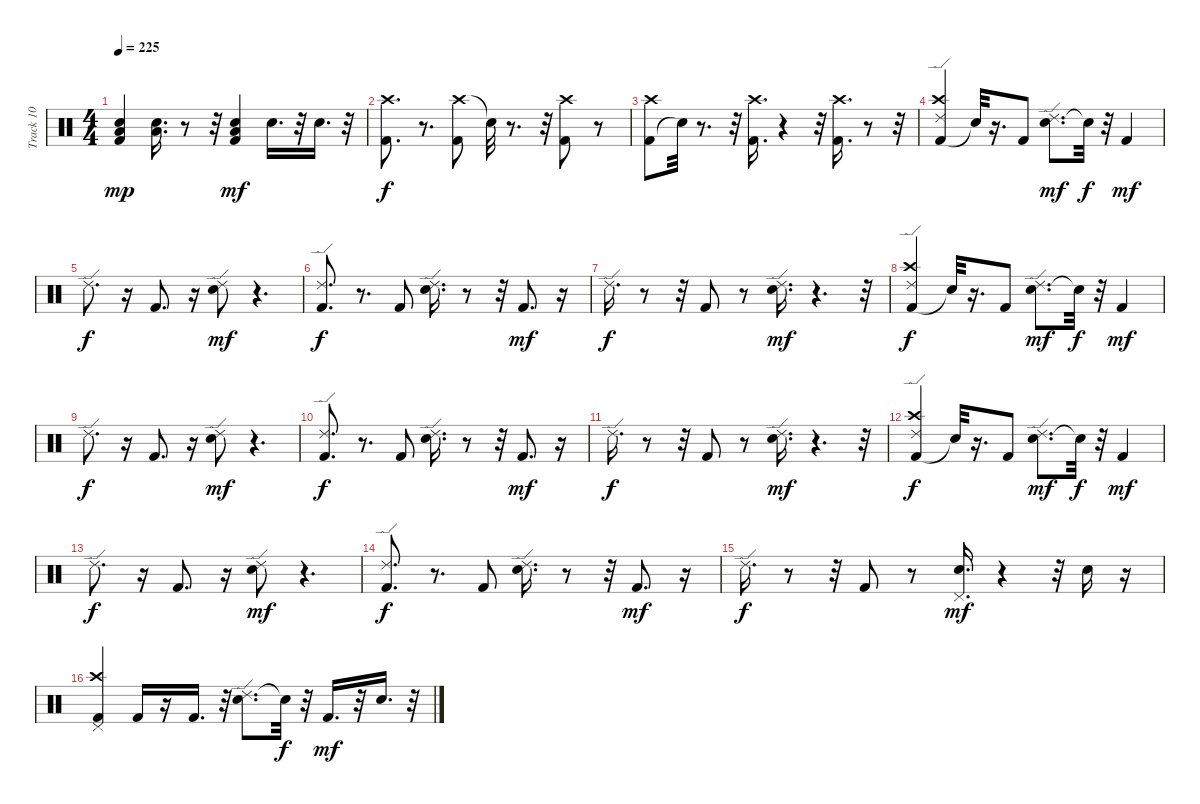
\track ("Track 10" "Track 10") {instrument percussion}
\staff {score}
\articulation defaults
\ts (4 4)
\tempo 225
\clef neutral
\ks c
("Kick (hit) 2" "Low Floor Tom (hit)" "Electric Snare (hit)").4{dy mp} ("Low Floor Tom (hit)" "Electric Snare (hit)").16{d} r.8 r.32 ("Kick (hit) 2" "Electric Snare (hit)" "Low Floor Tom (hit)").4{dy mf} "Electric Snare (hit)".16{d} r.32 "Electric Snare (hit)".16{d} r.32 |
("Crash high (hit)" "Kick (hit) 2").8{d dy f} r.8{d} ("Crash high (hit)" "Kick (hit) 2").8 "Snare (hit)"{t}.32 r.8{d} r.32 ("Crash high (hit)" "Kick (hit) 2").8 r.8 |
("Kick (hit) 2" "Crash high (hit)").8 "Snare (hit)"{t}.32 r.8{d} r.32 ("Crash high (hit)" "Kick (hit) 2").16{d} r.4 r.32 ("Kick (hit) 2" "Crash high (hit)").16{d} r.8 r.32 |
("Kick (hit) 2" "Crash high (hit)" "Ride (edge) 2").4 "Snare (hit)"{t}.32 r.16{d} "Kick (hit) 2".8 ("Electric Snare (hit)" "Ride (edge) 2").8{d dy mf} "Snare (hit)"{t}.32{dy f} r.32 "Kick (hit) 2".4{dy mf} |
"Ride (edge) 2".8{d dy f} r.16 "Kick (hit) 2".8{d} r.16 ("Electric Snare (hit)" "Ride (edge) 2").8{dy mf} r.4{d} |
("Kick (hit) 2" "Ride (edge) 2").8{d dy f} r.8{d} "Kick (hit) 2".8 ("Electric Snare (hit)" "Ride (edge) 2").16{d} r.8 r.32 "Kick (hit) 2".8{d dy mf} r.16 |
"Ride (edge) 2".16{d dy f} r.8 r.32 "Kick (hit) 2".8 r.8 ("Electric Snare (hit)" "Ride (edge) 2").16{d dy mf} r.4{d} r.32 |
("Kick (hit) 2" "Crash high (hit)" "Ride (edge) 2").4{dy f} "Snare (hit)"{t}.32 r.16{d} "Kick (hit) 2".8 ("Electric Snare (hit)" "Ride (edge) 2").8{d dy mf} "Snare (hit)"{t}.32{dy f} r.32 "Kick (hit) 2".4{dy mf} |
"Ride (edge) 2".8{d dy f} r.16 "Kick (hit) 2".8{d} r.16 ("Electric Snare (hit)" "Ride (edge) 2").8{dy mf} r.4{d} |
("Kick (hit) 2" "Ride (edge) 2").8{d dy f} r.8{d} "Kick (hit) 2".8 ("Electric Snare (hit)" "Ride (edge) 2").16{d} r.8 r.32 "Kick (hit) 2".8{d dy mf} r.16 |
"Ride (edge) 2".16{d dy f} r.8 r.32 "Kick (hit) 2".8 r.8 ("Electric Snare (hit)" "Ride (edge) 2").16{d dy mf} r.4{d} r.32 |
("Kick (hit) 2" "Crash high (hit)" "Ride (edge) 2").4{dy f} "Snare (hit)"{t}.32 r.16{d} "Kick (hit) 2".8 ("Electric Snare (hit)" "Ride (edge) 2").8{d dy mf} "Snare (hit)"{t}.32{dy f} r.32 "Kick (hit) 2".4{dy mf} |
"Ride (edge) 2".8{d dy f} r.16 "Kick (hit) 2".8{d} r.16 ("Electric Snare (hit)" "Ride (edge) 2").8{dy mf} r.4{d} |
("Kick (hit) 2" "Ride (edge) 2").8{d dy f} r.8{d} "Kick (hit) 2".8 ("Electric Snare (hit)" "Ride (edge) 2").16{d} r.8 r.32 "Kick (hit) 2".8{d dy mf} r.16 |
"Ride (edge) 2".16{d dy f} r.8 r.32 "Kick (hit) 2".8 r.8 ("Electric Snare (hit)" "Pedal Hi-Hat (hit)").16{d dy mf} r.4 r.32 "Electric Snare (hit)".16 r.16 |
("Kick (hit) 2" "Crash high (hit)" "Pedal Hi-Hat (hit)").4 "Kick (hit) 2".16 r.16 "Kick (hit) 2".16{d} r.32 ("Ride (edge) 2" "Electric Snare (hit)").8{d} "Snare (hit)"{t}.32{dy f} r.32 "Kick (hit) 2".16{d dy mf} r.32 "Electric Snare (hit)".16{d} r.32
